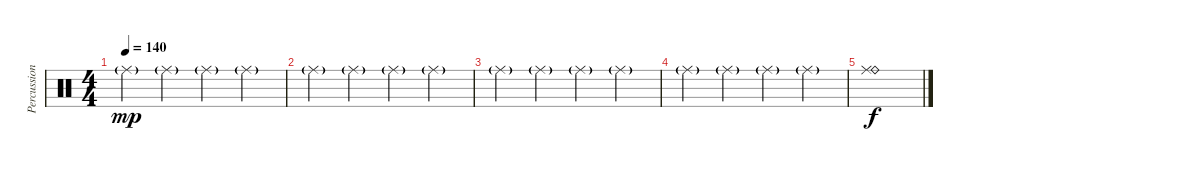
\track ("Percussion" "Percussion") {instrument percussion}
\staff {score}
\articulation defaults
\ts (4 4)
\tempo 140
\clef neutral
\ks c "Ride (middle)"{g}.4{dy mp} "Ride (middle)"{g}.4 "Ride (middle)"{g}.4 "Ride (middle)"{g}.4
|
"Ride (middle)"{g}.4 "Ride (middle)"{g}.4 "Ride (middle)"{g}.4 "Ride (middle)"{g}.4 |
"Ride (middle)"{g}.4 "Ride (middle)"{g}.4 "Ride (middle)"{g}.4 "Ride (middle)"{g}.4 |
"Ride (middle)"{g}.4 "Ride (middle)"{g}.4 "Ride (middle)"{g}.4 "Ride (middle)"{g}.4 |
("Ride (bell)" "Ride (middle)").1{dy f}
